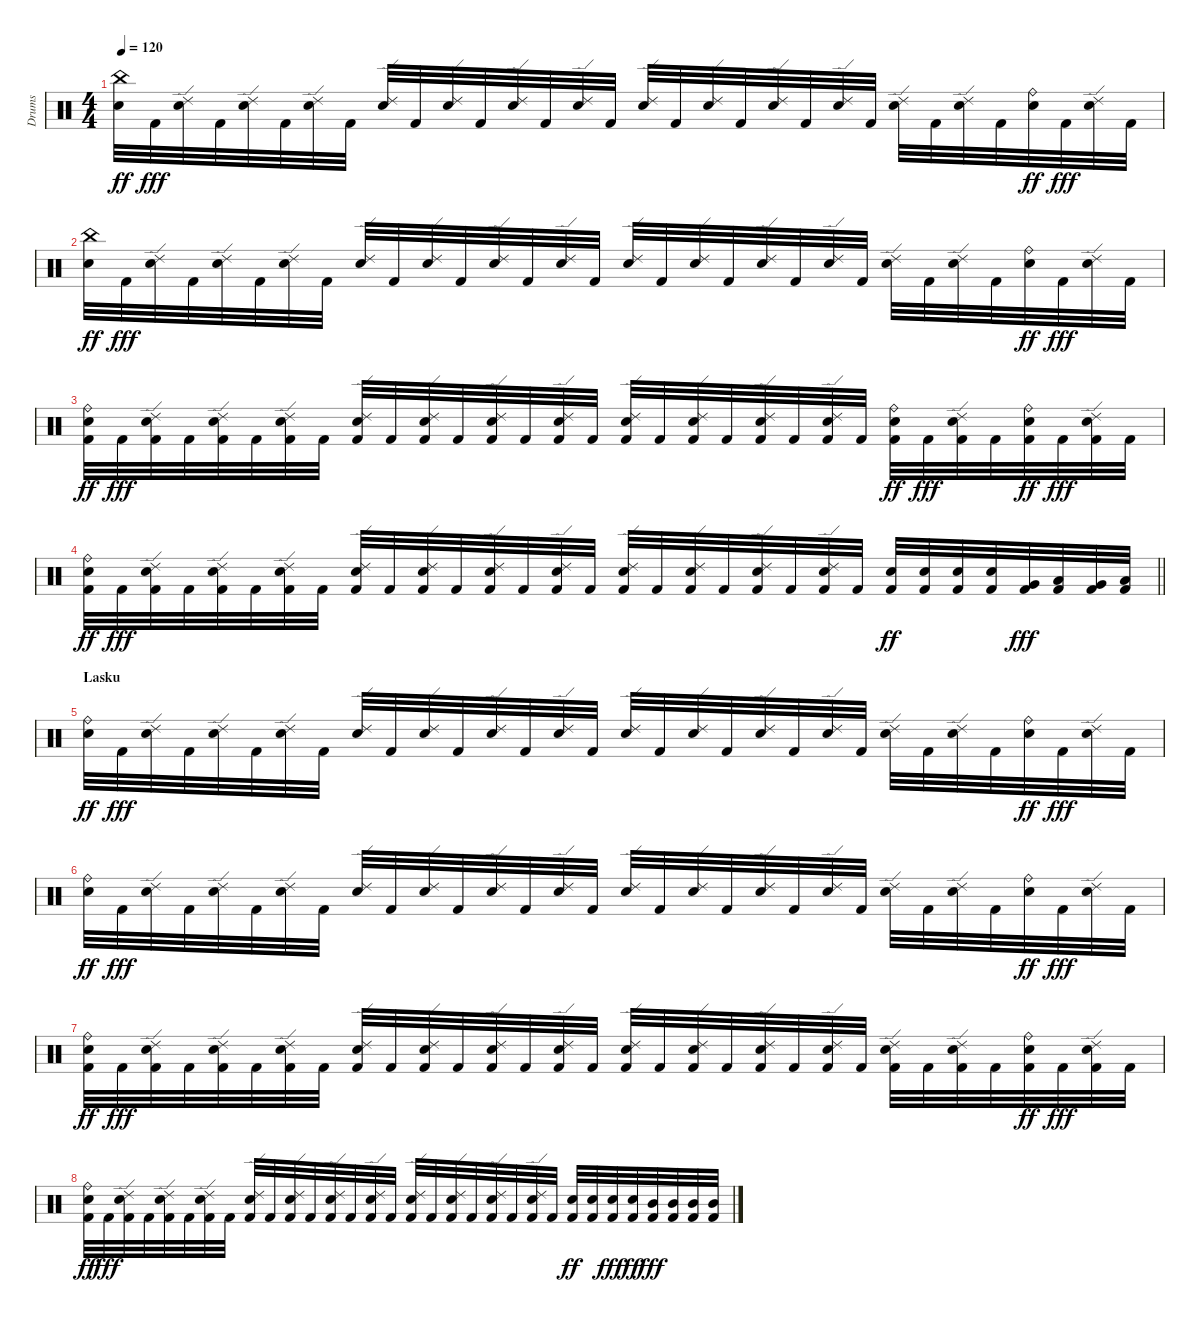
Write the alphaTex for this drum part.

\track ("Drums" "Drums") {instrument percussion}
\staff {score}
\articulation defaults
\ts (4 4)
\tempo 120
\clef neutral
\ks c
("Snare (hit) 2" "China (hit)").32{dy ff} "Kick (hit) 2".32{dy fff} ("Snare (hit) 2" "Ride (edge) 2").32 "Kick (hit) 2".32 ("Snare (hit) 2" "Ride (edge) 2").32 "Kick (hit) 2".32 ("Snare (hit) 2" "Ride (edge) 2").32 "Kick (hit) 2".32 ("Snare (hit) 2" "Ride (edge) 2").32 "Kick (hit) 2".32 ("Snare (hit) 2" "Ride (edge) 2").32 "Kick (hit) 2".32 ("Snare (hit) 2" "Ride (edge) 2").32 "Kick (hit) 2".32 ("Snare (hit) 2" "Ride (edge) 2").32 "Kick (hit) 2".32 ("Snare (hit) 2" "Ride (edge) 2").32 "Kick (hit) 2".32 ("Snare (hit) 2" "Ride (edge) 2").32 "Kick (hit) 2".32 ("Snare (hit) 2" "Ride (edge) 2").32 "Kick (hit) 2".32 ("Snare (hit) 2" "Ride (edge) 2").32 "Kick (hit) 2".32 ("Snare (hit) 2" "Ride (edge) 2").32 "Kick (hit) 2".32 ("Snare (hit) 2" "Ride (edge) 2").32 "Kick (hit) 2".32 ("Snare (hit) 2" "Ride (bell)").32{dy ff} "Kick (hit) 2".32{dy fff} ("Snare (hit) 2" "Ride (edge) 2").32 "Kick (hit) 2".32 |
("Snare (hit) 2" "China (hit)").32{dy ff} "Kick (hit) 2".32{dy fff} ("Snare (hit) 2" "Ride (edge) 2").32 "Kick (hit) 2".32 ("Snare (hit) 2" "Ride (edge) 2").32 "Kick (hit) 2".32 ("Snare (hit) 2" "Ride (edge) 2").32 "Kick (hit) 2".32 ("Snare (hit) 2" "Ride (edge) 2").32 "Kick (hit) 2".32 ("Snare (hit) 2" "Ride (edge) 2").32 "Kick (hit) 2".32 ("Snare (hit) 2" "Ride (edge) 2").32 "Kick (hit) 2".32 ("Snare (hit) 2" "Ride (edge) 2").32 "Kick (hit) 2".32 ("Snare (hit) 2" "Ride (edge) 2").32 "Kick (hit) 2".32 ("Snare (hit) 2" "Ride (edge) 2").32 "Kick (hit) 2".32 ("Snare (hit) 2" "Ride (edge) 2").32 "Kick (hit) 2".32 ("Snare (hit) 2" "Ride (edge) 2").32 "Kick (hit) 2".32 ("Snare (hit) 2" "Ride (edge) 2").32 "Kick (hit) 2".32 ("Snare (hit) 2" "Ride (edge) 2").32 "Kick (hit) 2".32 ("Snare (hit) 2" "Ride (bell)").32{dy ff} "Kick (hit) 2".32{dy fff} ("Snare (hit) 2" "Ride (edge) 2").32 "Kick (hit) 2".32 |
("Kick (hit) 2" "Snare (hit) 2" "Ride (bell)").32{dy ff} "Kick (hit) 2".32{dy fff} ("Kick (hit) 2" "Snare (hit) 2" "Ride (edge) 2").32 "Kick (hit) 2".32 ("Kick (hit) 2" "Snare (hit) 2" "Ride (edge) 2").32 "Kick (hit) 2".32 ("Kick (hit) 2" "Snare (hit) 2" "Ride (edge) 2").32 "Kick (hit) 2".32 ("Kick (hit) 2" "Snare (hit) 2" "Ride (edge) 2").32 "Kick (hit) 2".32 ("Kick (hit) 2" "Snare (hit) 2" "Ride (edge) 2").32 "Kick (hit) 2".32 ("Kick (hit) 2" "Snare (hit) 2" "Ride (edge) 2").32 "Kick (hit) 2".32 ("Kick (hit) 2" "Snare (hit) 2" "Ride (edge) 2").32 "Kick (hit) 2".32 ("Kick (hit) 2" "Snare (hit) 2" "Ride (edge) 2").32 "Kick (hit) 2".32 ("Kick (hit) 2" "Snare (hit) 2" "Ride (edge) 2").32 "Kick (hit) 2".32 ("Kick (hit) 2" "Snare (hit) 2" "Ride (edge) 2").32 "Kick (hit) 2".32 ("Kick (hit) 2" "Snare (hit) 2" "Ride (edge) 2").32 "Kick (hit) 2".32 ("Kick (hit) 2" "Snare (hit) 2" "Ride (bell)").32{dy ff} "Kick (hit) 2".32{dy fff} ("Kick (hit) 2" "Snare (hit) 2" "Ride (edge) 2").32 "Kick (hit) 2".32 ("Kick (hit) 2" "Snare (hit) 2" "Ride (bell)").32{dy ff} "Kick (hit) 2".32{dy fff} ("Kick (hit) 2" "Snare (hit) 2" "Ride (edge) 2").32 "Kick (hit) 2".32 |
\barLineRight lightlight
("Kick (hit) 2" "Snare (hit) 2" "Ride (bell)").32{dy ff} "Kick (hit) 2".32{dy fff} ("Kick (hit) 2" "Snare (hit) 2" "Ride (edge) 2").32 "Kick (hit) 2".32 ("Kick (hit) 2" "Snare (hit) 2" "Ride (edge) 2").32 "Kick (hit) 2".32 ("Kick (hit) 2" "Snare (hit) 2" "Ride (edge) 2").32 "Kick (hit) 2".32 ("Kick (hit) 2" "Snare (hit) 2" "Ride (edge) 2").32 "Kick (hit) 2".32 ("Kick (hit) 2" "Snare (hit) 2" "Ride (edge) 2").32 "Kick (hit) 2".32 ("Kick (hit) 2" "Snare (hit) 2" "Ride (edge) 2").32 "Kick (hit) 2".32 ("Kick (hit) 2" "Snare (hit) 2" "Ride (edge) 2").32 "Kick (hit) 2".32 ("Kick (hit) 2" "Snare (hit) 2" "Ride (edge) 2").32 "Kick (hit) 2".32 ("Kick (hit) 2" "Snare (hit) 2" "Ride (edge) 2").32 "Kick (hit) 2".32 ("Kick (hit) 2" "Snare (hit) 2" "Ride (edge) 2").32 "Kick (hit) 2".32 ("Kick (hit) 2" "Snare (hit) 2" "Ride (edge) 2").32 "Kick (hit) 2".32 ("Kick (hit) 2" "Snare (hit) 2").32{dy ff} ("Kick (hit) 2" "Snare (hit) 2").32 ("Kick (hit) 2" "Snare (hit) 2").32 ("Kick (hit) 2" "Snare (hit) 2").32 ("Kick (hit) 2" "Very Low Tom (hit)").32{dy fff} ("Kick (hit) 2" "Low Floor Tom (hit)").32 ("Kick (hit) 2" "Very Low Tom (hit)").32 ("Kick (hit) 2" "Low Floor Tom (hit)").32 |
\section ("" "Lasku")
("Snare (hit) 2" "Ride (bell)").32{dy ff} "Kick (hit) 2".32{dy fff} ("Snare (hit) 2" "Ride (edge) 2").32 "Kick (hit) 2".32 ("Snare (hit) 2" "Ride (edge) 2").32 "Kick (hit) 2".32 ("Snare (hit) 2" "Ride (edge) 2").32 "Kick (hit) 2".32 ("Snare (hit) 2" "Ride (edge) 2").32 "Kick (hit) 2".32 ("Snare (hit) 2" "Ride (edge) 2").32 "Kick (hit) 2".32 ("Snare (hit) 2" "Ride (edge) 2").32 "Kick (hit) 2".32 ("Snare (hit) 2" "Ride (edge) 2").32 "Kick (hit) 2".32 ("Snare (hit) 2" "Ride (edge) 2").32 "Kick (hit) 2".32 ("Snare (hit) 2" "Ride (edge) 2").32 "Kick (hit) 2".32 ("Snare (hit) 2" "Ride (edge) 2").32 "Kick (hit) 2".32 ("Snare (hit) 2" "Ride (edge) 2").32 "Kick (hit) 2".32 ("Snare (hit) 2" "Ride (edge) 2").32 "Kick (hit) 2".32 ("Snare (hit) 2" "Ride (edge) 2").32 "Kick (hit) 2".32 ("Snare (hit) 2" "Ride (bell)").32{dy ff} "Kick (hit) 2".32{dy fff} ("Snare (hit) 2" "Ride (edge) 2").32 "Kick (hit) 2".32 |
("Snare (hit) 2" "Ride (bell)").32{dy ff} "Kick (hit) 2".32{dy fff} ("Snare (hit) 2" "Ride (edge) 2").32 "Kick (hit) 2".32 ("Snare (hit) 2" "Ride (edge) 2").32 "Kick (hit) 2".32 ("Snare (hit) 2" "Ride (edge) 2").32 "Kick (hit) 2".32 ("Snare (hit) 2" "Ride (edge) 2").32 "Kick (hit) 2".32 ("Snare (hit) 2" "Ride (edge) 2").32 "Kick (hit) 2".32 ("Snare (hit) 2" "Ride (edge) 2").32 "Kick (hit) 2".32 ("Snare (hit) 2" "Ride (edge) 2").32 "Kick (hit) 2".32 ("Snare (hit) 2" "Ride (edge) 2").32 "Kick (hit) 2".32 ("Snare (hit) 2" "Ride (edge) 2").32 "Kick (hit) 2".32 ("Snare (hit) 2" "Ride (edge) 2").32 "Kick (hit) 2".32 ("Snare (hit) 2" "Ride (edge) 2").32 "Kick (hit) 2".32 ("Snare (hit) 2" "Ride (edge) 2").32 "Kick (hit) 2".32 ("Snare (hit) 2" "Ride (edge) 2").32 "Kick (hit) 2".32 ("Snare (hit) 2" "Ride (bell)").32{dy ff} "Kick (hit) 2".32{dy fff} ("Snare (hit) 2" "Ride (edge) 2").32 "Kick (hit) 2".32 |
("Kick (hit) 2" "Snare (hit) 2" "Ride (bell)").32{dy ff} "Kick (hit) 2".32{dy fff} ("Kick (hit) 2" "Snare (hit) 2" "Ride (edge) 2").32 "Kick (hit) 2".32 ("Kick (hit) 2" "Snare (hit) 2" "Ride (edge) 2").32 "Kick (hit) 2".32 ("Kick (hit) 2" "Snare (hit) 2" "Ride (edge) 2").32 "Kick (hit) 2".32 ("Kick (hit) 2" "Snare (hit) 2" "Ride (edge) 2").32 "Kick (hit) 2".32 ("Kick (hit) 2" "Snare (hit) 2" "Ride (edge) 2").32 "Kick (hit) 2".32 ("Kick (hit) 2" "Snare (hit) 2" "Ride (edge) 2").32 "Kick (hit) 2".32 ("Kick (hit) 2" "Snare (hit) 2" "Ride (edge) 2").32 "Kick (hit) 2".32 ("Kick (hit) 2" "Snare (hit) 2" "Ride (edge) 2").32 "Kick (hit) 2".32 ("Kick (hit) 2" "Snare (hit) 2" "Ride (edge) 2").32 "Kick (hit) 2".32 ("Kick (hit) 2" "Snare (hit) 2" "Ride (edge) 2").32 "Kick (hit) 2".32 ("Kick (hit) 2" "Snare (hit) 2" "Ride (edge) 2").32 "Kick (hit) 2".32 ("Kick (hit) 2" "Snare (hit) 2" "Ride (edge) 2").32 "Kick (hit) 2".32 ("Kick (hit) 2" "Snare (hit) 2" "Ride (edge) 2").32 "Kick (hit) 2".32 ("Kick (hit) 2" "Snare (hit) 2" "Ride (bell)").32{dy ff} "Kick (hit) 2".32{dy fff} ("Kick (hit) 2" "Snare (hit) 2" "Ride (edge) 2").32 "Kick (hit) 2".32 |
("Kick (hit) 2" "Snare (hit) 2" "Ride (bell)").32{dy ff} "Kick (hit) 2".32{dy fff} ("Kick (hit) 2" "Snare (hit) 2" "Ride (edge) 2").32 "Kick (hit) 2".32 ("Kick (hit) 2" "Snare (hit) 2" "Ride (edge) 2").32 "Kick (hit) 2".32 ("Kick (hit) 2" "Snare (hit) 2" "Ride (edge) 2").32 "Kick (hit) 2".32 ("Kick (hit) 2" "Snare (hit) 2" "Ride (edge) 2").32 "Kick (hit) 2".32 ("Kick (hit) 2" "Snare (hit) 2" "Ride (edge) 2").32 "Kick (hit) 2".32 ("Kick (hit) 2" "Snare (hit) 2" "Ride (edge) 2").32 "Kick (hit) 2".32 ("Kick (hit) 2" "Snare (hit) 2" "Ride (edge) 2").32 "Kick (hit) 2".32 ("Kick (hit) 2" "Snare (hit) 2" "Ride (edge) 2").32 "Kick (hit) 2".32 ("Kick (hit) 2" "Snare (hit) 2" "Ride (edge) 2").32 "Kick (hit) 2".32 ("Kick (hit) 2" "Snare (hit) 2" "Ride (edge) 2").32 "Kick (hit) 2".32 ("Kick (hit) 2" "Snare (hit) 2" "Ride (edge) 2").32 "Kick (hit) 2".32 ("Kick (hit) 2" "Snare (hit) 2").32{dy ff} ("Kick (hit) 2" "Snare (hit) 2").32 ("Snare (hit) 2" "Kick (hit) 2").32{dy fff} ("Kick (hit) 2" "Snare (hit) 2").32{dy ff} ("Kick (hit) 2" "Mid Tom (hit)").32{dy fff} ("Kick (hit) 2" "Mid Tom (hit)").32 ("Kick (hit) 2" "Mid Tom (hit)").32 ("Kick (hit) 2" "Mid Tom (hit)").32
